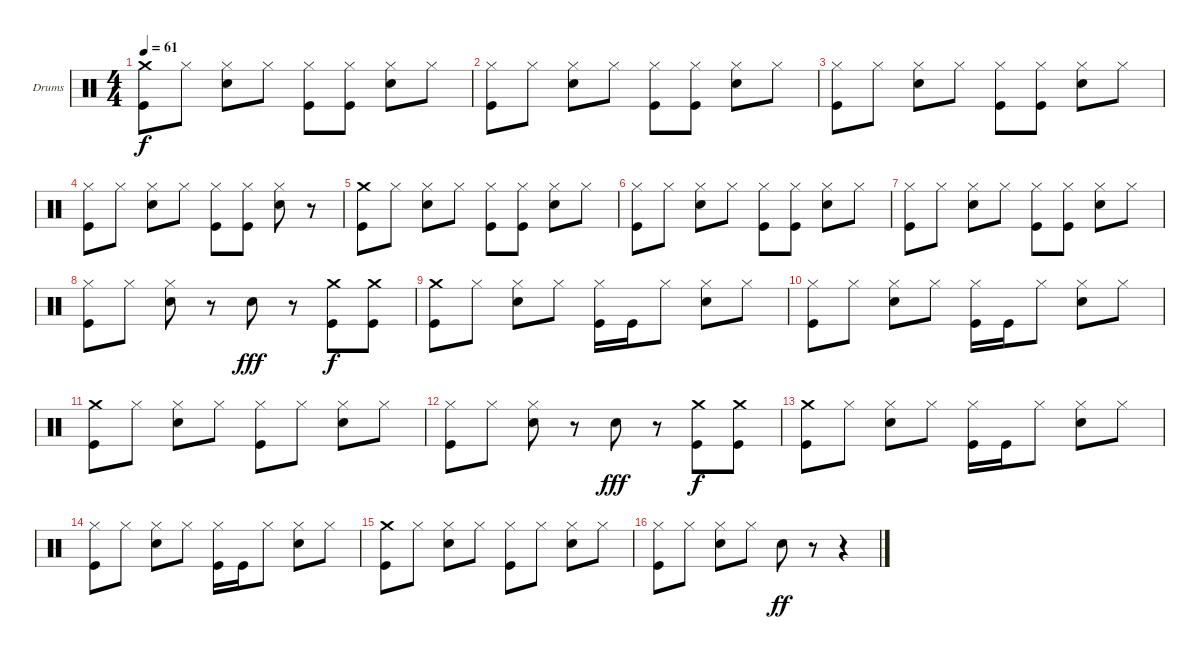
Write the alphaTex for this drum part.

\bracketExtendMode groupsimilarinstruments
\firstSystemTrackNameOrientation horizontal
\otherSystemsTrackNameOrientation horizontal
\track ("Drumkit" "Drums") {instrument percussion}
\staff {score}
\articulation defaults
\ts (4 4)
\tempo 61
\clef neutral
\ks c
("Crash medium (hit)" "Kick (hit)").8{dy f} "Hi-Hat (closed)".8 ("Hi-Hat (closed)" "Snare (hit) 2").8 "Hi-Hat (closed)".8 ("Hi-Hat (closed)" "Kick (hit)").8 ("Hi-Hat (closed)" "Kick (hit)").8 ("Hi-Hat (closed)" "Snare (hit) 2").8 "Hi-Hat (closed)".8 |
("Hi-Hat (closed)" "Kick (hit)").8 "Hi-Hat (closed)".8 ("Hi-Hat (closed)" "Snare (hit) 2").8 "Hi-Hat (closed)".8 ("Hi-Hat (closed)" "Kick (hit)").8 ("Hi-Hat (closed)" "Kick (hit)").8 ("Hi-Hat (closed)" "Snare (hit) 2").8 "Hi-Hat (closed)".8 |
("Hi-Hat (closed)" "Kick (hit)").8 "Hi-Hat (closed)".8 ("Hi-Hat (closed)" "Snare (hit) 2").8 "Hi-Hat (closed)".8 ("Hi-Hat (closed)" "Kick (hit)").8 ("Hi-Hat (closed)" "Kick (hit)").8 ("Hi-Hat (closed)" "Snare (hit) 2").8 "Hi-Hat (closed)".8 |
("Hi-Hat (closed)" "Kick (hit)").8 "Hi-Hat (closed)".8 ("Hi-Hat (closed)" "Snare (hit) 2").8 "Hi-Hat (closed)".8 ("Hi-Hat (closed)" "Kick (hit)").8 ("Hi-Hat (closed)" "Kick (hit)").8 ("Hi-Hat (closed)" "Snare (hit) 2").8 r.8 |
("Crash medium (hit)" "Kick (hit)").8 "Hi-Hat (closed)".8 ("Hi-Hat (closed)" "Snare (hit) 2").8 "Hi-Hat (closed)".8 ("Hi-Hat (closed)" "Kick (hit)").8 ("Hi-Hat (closed)" "Kick (hit)").8 ("Hi-Hat (closed)" "Snare (hit) 2").8 "Hi-Hat (closed)".8 |
("Hi-Hat (closed)" "Kick (hit)").8 "Hi-Hat (closed)".8 ("Hi-Hat (closed)" "Snare (hit) 2").8 "Hi-Hat (closed)".8 ("Hi-Hat (closed)" "Kick (hit)").8 ("Hi-Hat (closed)" "Kick (hit)").8 ("Hi-Hat (closed)" "Snare (hit) 2").8 "Hi-Hat (closed)".8 |
("Hi-Hat (closed)" "Kick (hit)").8 "Hi-Hat (closed)".8 ("Hi-Hat (closed)" "Snare (hit) 2").8 "Hi-Hat (closed)".8 ("Hi-Hat (closed)" "Kick (hit)").8 ("Hi-Hat (closed)" "Kick (hit)").8 ("Hi-Hat (closed)" "Snare (hit) 2").8 "Hi-Hat (closed)".8 |
("Hi-Hat (closed)" "Kick (hit)").8 "Hi-Hat (closed)".8 ("Hi-Hat (closed)" "Snare (hit) 2").8 r.8 "Snare (hit) 2".8{dy fff} r.8 ("Crash medium (hit)" "Kick (hit)").8{dy f} ("Crash medium (hit)" "Kick (hit)").8 |
("Crash medium (hit)" "Kick (hit)").8 "Hi-Hat (closed)".8 ("Hi-Hat (closed)" "Snare (hit) 2").8 "Hi-Hat (closed)".8 ("Hi-Hat (closed)" "Kick (hit)").16 "Kick (hit)".16 "Hi-Hat (closed)".8 ("Hi-Hat (closed)" "Snare (hit) 2").8 "Hi-Hat (closed)".8 |
("Hi-Hat (closed)" "Kick (hit)").8 "Hi-Hat (closed)".8 ("Hi-Hat (closed)" "Snare (hit) 2").8 "Hi-Hat (closed)".8 ("Hi-Hat (closed)" "Kick (hit)").16 "Kick (hit)".16 "Hi-Hat (closed)".8 ("Hi-Hat (closed)" "Snare (hit) 2").8 "Hi-Hat (closed)".8 |
("Crash medium (hit)" "Kick (hit)").8 "Hi-Hat (closed)".8 ("Hi-Hat (closed)" "Snare (hit) 2").8 "Hi-Hat (closed)".8 ("Hi-Hat (closed)" "Kick (hit)").8 "Hi-Hat (closed)".8 ("Hi-Hat (closed)" "Snare (hit) 2").8 "Hi-Hat (closed)".8 |
("Hi-Hat (closed)" "Kick (hit)").8 "Hi-Hat (closed)".8 ("Hi-Hat (closed)" "Snare (hit) 2").8 r.8 "Snare (hit) 2".8{dy fff} r.8 ("Crash medium (hit)" "Kick (hit)").8{dy f} ("Crash medium (hit)" "Kick (hit)").8 |
("Crash medium (hit)" "Kick (hit)").8 "Hi-Hat (closed)".8 ("Hi-Hat (closed)" "Snare (hit) 2").8 "Hi-Hat (closed)".8 ("Hi-Hat (closed)" "Kick (hit)").16 "Kick (hit)".16 "Hi-Hat (closed)".8 ("Hi-Hat (closed)" "Snare (hit) 2").8 "Hi-Hat (closed)".8 |
("Hi-Hat (closed)" "Kick (hit)").8 "Hi-Hat (closed)".8 ("Hi-Hat (closed)" "Snare (hit) 2").8 "Hi-Hat (closed)".8 ("Hi-Hat (closed)" "Kick (hit)").16 "Kick (hit)".16 "Hi-Hat (closed)".8 ("Hi-Hat (closed)" "Snare (hit) 2").8 "Hi-Hat (closed)".8 |
("Crash medium (hit)" "Kick (hit)").8 "Hi-Hat (closed)".8 ("Hi-Hat (closed)" "Snare (hit) 2").8 "Hi-Hat (closed)".8 ("Hi-Hat (closed)" "Kick (hit)").8 "Hi-Hat (closed)".8 ("Hi-Hat (closed)" "Snare (hit) 2").8 "Hi-Hat (closed)".8 |
("Hi-Hat (closed)" "Kick (hit)").8 "Hi-Hat (closed)".8 ("Hi-Hat (closed)" "Snare (hit) 2").8 "Hi-Hat (closed)".8 "Snare (hit) 2".8{dy ff} r.8 r.4
